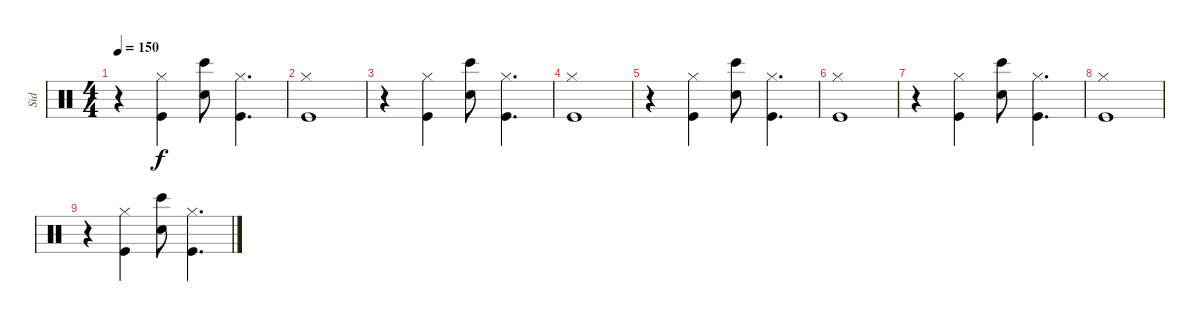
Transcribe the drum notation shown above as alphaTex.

\track ("Sid" "Sid") {instrument percussion}
\staff {score}
\articulation defaults
\ts (4 4)
\tempo 150
\clef neutral
\ks c
r.4{dy f} ("Hi-Hat (closed)" "Kick (hit)").4 ("Snare (hit) 2" "Bongo High (hit)").8 ("Hi-Hat (closed)" "Kick (hit)").4{d} |
("Hi-Hat (closed)" "Kick (hit)").1 |
r.4 ("Hi-Hat (closed)" "Kick (hit)").4 ("Snare (hit) 2" "Bongo High (hit)").8 ("Hi-Hat (closed)" "Kick (hit)").4{d} |
("Hi-Hat (closed)" "Kick (hit)").1 |
r.4 ("Hi-Hat (closed)" "Kick (hit)").4 ("Snare (hit) 2" "Bongo High (hit)").8 ("Hi-Hat (closed)" "Kick (hit)").4{d} |
("Hi-Hat (closed)" "Kick (hit)").1 |
r.4 ("Hi-Hat (closed)" "Kick (hit)").4 ("Snare (hit) 2" "Bongo High (hit)").8 ("Hi-Hat (closed)" "Kick (hit)").4{d} |
("Hi-Hat (closed)" "Kick (hit)").1 |
r.4 ("Hi-Hat (closed)" "Kick (hit)").4 ("Snare (hit) 2" "Bongo High (hit)").8 ("Hi-Hat (closed)" "Kick (hit)").4{d}
